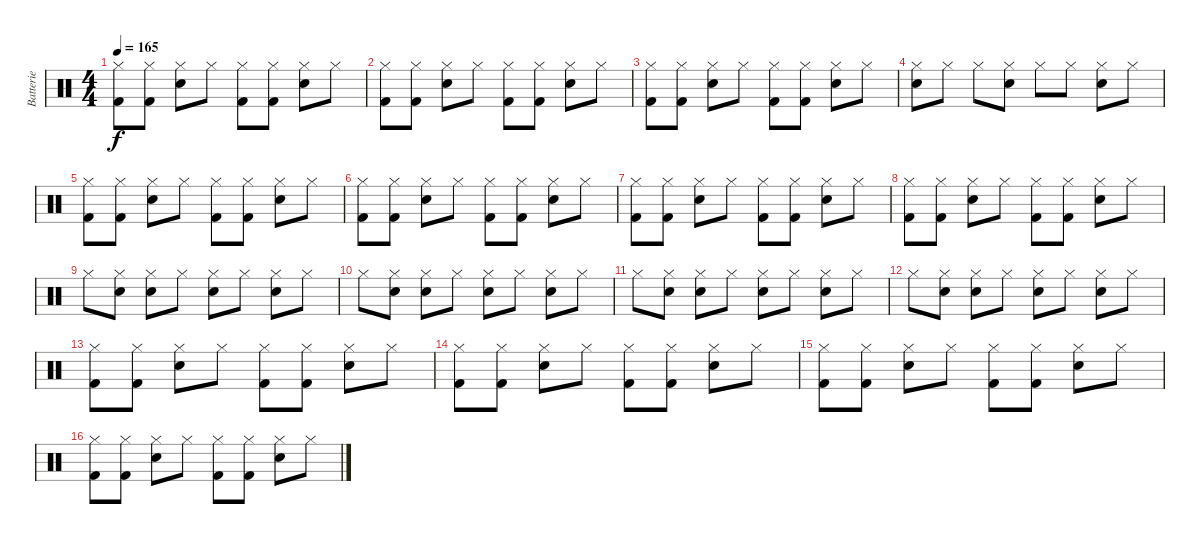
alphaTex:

\track ("Batterie" "Batterie") {instrument percussion}
\staff {score}
\articulation defaults
\ts (4 4)
\tempo 165
\clef neutral
\ks c
("Hi-Hat (closed)" "Kick (hit) 2").8{dy f} ("Hi-Hat (closed)" "Kick (hit) 2").8 ("Hi-Hat (closed)" "Electric Snare (hit)").8 "Hi-Hat (closed)".8 ("Hi-Hat (closed)" "Kick (hit) 2").8 ("Hi-Hat (closed)" "Kick (hit) 2").8 ("Hi-Hat (closed)" "Electric Snare (hit)").8 "Hi-Hat (closed)".8 |
("Hi-Hat (closed)" "Kick (hit) 2").8 ("Hi-Hat (closed)" "Kick (hit) 2").8 ("Hi-Hat (closed)" "Electric Snare (hit)").8 "Hi-Hat (closed)".8 ("Hi-Hat (closed)" "Kick (hit) 2").8 ("Hi-Hat (closed)" "Kick (hit) 2").8 ("Hi-Hat (closed)" "Electric Snare (hit)").8 "Hi-Hat (closed)".8 |
("Hi-Hat (closed)" "Kick (hit) 2").8 ("Hi-Hat (closed)" "Kick (hit) 2").8 ("Hi-Hat (closed)" "Electric Snare (hit)").8 "Hi-Hat (closed)".8 ("Hi-Hat (closed)" "Kick (hit) 2").8 ("Hi-Hat (closed)" "Kick (hit) 2").8 ("Hi-Hat (closed)" "Electric Snare (hit)").8 "Hi-Hat (closed)".8 |
("Hi-Hat (closed)" "Electric Snare (hit)").8 "Hi-Hat (closed)".8 "Hi-Hat (closed)".8 ("Hi-Hat (closed)" "Electric Snare (hit)").8 "Hi-Hat (closed)".8 "Hi-Hat (closed)".8 ("Hi-Hat (closed)" "Electric Snare (hit)").8 "Hi-Hat (closed)".8 |
("Hi-Hat (closed)" "Kick (hit) 2").8 ("Hi-Hat (closed)" "Kick (hit) 2").8 ("Hi-Hat (closed)" "Electric Snare (hit)").8 "Hi-Hat (closed)".8 ("Hi-Hat (closed)" "Kick (hit) 2").8 ("Hi-Hat (closed)" "Kick (hit) 2").8 ("Hi-Hat (closed)" "Electric Snare (hit)").8 "Hi-Hat (closed)".8 |
("Hi-Hat (closed)" "Kick (hit) 2").8 ("Hi-Hat (closed)" "Kick (hit) 2").8 ("Hi-Hat (closed)" "Electric Snare (hit)").8 "Hi-Hat (closed)".8 ("Hi-Hat (closed)" "Kick (hit) 2").8 ("Hi-Hat (closed)" "Kick (hit) 2").8 ("Hi-Hat (closed)" "Electric Snare (hit)").8 "Hi-Hat (closed)".8 |
("Hi-Hat (closed)" "Kick (hit) 2").8 ("Hi-Hat (closed)" "Kick (hit) 2").8 ("Hi-Hat (closed)" "Electric Snare (hit)").8 "Hi-Hat (closed)".8 ("Hi-Hat (closed)" "Kick (hit) 2").8 ("Hi-Hat (closed)" "Kick (hit) 2").8 ("Hi-Hat (closed)" "Electric Snare (hit)").8 "Hi-Hat (closed)".8 |
("Hi-Hat (closed)" "Kick (hit) 2").8 ("Hi-Hat (closed)" "Kick (hit) 2").8 ("Hi-Hat (closed)" "Electric Snare (hit)").8 "Hi-Hat (closed)".8 ("Hi-Hat (closed)" "Kick (hit) 2").8 ("Hi-Hat (closed)" "Kick (hit) 2").8 ("Hi-Hat (closed)" "Electric Snare (hit)").8 "Hi-Hat (closed)".8 |
"Hi-Hat (closed)".8 ("Hi-Hat (closed)" "Electric Snare (hit)").8 ("Hi-Hat (closed)" "Electric Snare (hit)").8 "Hi-Hat (closed)".8 ("Hi-Hat (closed)" "Electric Snare (hit)").8 "Hi-Hat (closed)".8 ("Hi-Hat (closed)" "Electric Snare (hit)").8 "Hi-Hat (closed)".8 |
"Hi-Hat (closed)".8 ("Hi-Hat (closed)" "Electric Snare (hit)").8 ("Hi-Hat (closed)" "Electric Snare (hit)").8 "Hi-Hat (closed)".8 ("Hi-Hat (closed)" "Electric Snare (hit)").8 "Hi-Hat (closed)".8 ("Hi-Hat (closed)" "Electric Snare (hit)").8 "Hi-Hat (closed)".8 |
"Hi-Hat (closed)".8 ("Hi-Hat (closed)" "Electric Snare (hit)").8 ("Hi-Hat (closed)" "Electric Snare (hit)").8 "Hi-Hat (closed)".8 ("Hi-Hat (closed)" "Electric Snare (hit)").8 "Hi-Hat (closed)".8 ("Hi-Hat (closed)" "Electric Snare (hit)").8 "Hi-Hat (closed)".8 |
"Hi-Hat (closed)".8 ("Hi-Hat (closed)" "Electric Snare (hit)").8 ("Hi-Hat (closed)" "Electric Snare (hit)").8 "Hi-Hat (closed)".8 ("Hi-Hat (closed)" "Electric Snare (hit)").8 "Hi-Hat (closed)".8 ("Hi-Hat (closed)" "Electric Snare (hit)").8 "Hi-Hat (closed)".8 |
("Hi-Hat (closed)" "Kick (hit) 2").8 ("Hi-Hat (closed)" "Kick (hit) 2").8 ("Hi-Hat (closed)" "Electric Snare (hit)").8 "Hi-Hat (closed)".8 ("Hi-Hat (closed)" "Kick (hit) 2").8 ("Hi-Hat (closed)" "Kick (hit) 2").8 ("Hi-Hat (closed)" "Electric Snare (hit)").8 "Hi-Hat (closed)".8 |
("Hi-Hat (closed)" "Kick (hit) 2").8 ("Hi-Hat (closed)" "Kick (hit) 2").8 ("Hi-Hat (closed)" "Electric Snare (hit)").8 "Hi-Hat (closed)".8 ("Hi-Hat (closed)" "Kick (hit) 2").8 ("Hi-Hat (closed)" "Kick (hit) 2").8 ("Hi-Hat (closed)" "Electric Snare (hit)").8 "Hi-Hat (closed)".8 |
("Hi-Hat (closed)" "Kick (hit) 2").8 ("Hi-Hat (closed)" "Kick (hit) 2").8 ("Hi-Hat (closed)" "Electric Snare (hit)").8 "Hi-Hat (closed)".8 ("Hi-Hat (closed)" "Kick (hit) 2").8 ("Hi-Hat (closed)" "Kick (hit) 2").8 ("Hi-Hat (closed)" "Electric Snare (hit)").8 "Hi-Hat (closed)".8 |
("Hi-Hat (closed)" "Kick (hit) 2").8 ("Hi-Hat (closed)" "Kick (hit) 2").8 ("Hi-Hat (closed)" "Electric Snare (hit)").8 "Hi-Hat (closed)".8 ("Hi-Hat (closed)" "Kick (hit) 2").8 ("Hi-Hat (closed)" "Kick (hit) 2").8 ("Hi-Hat (closed)" "Electric Snare (hit)").8 "Hi-Hat (closed)".8
